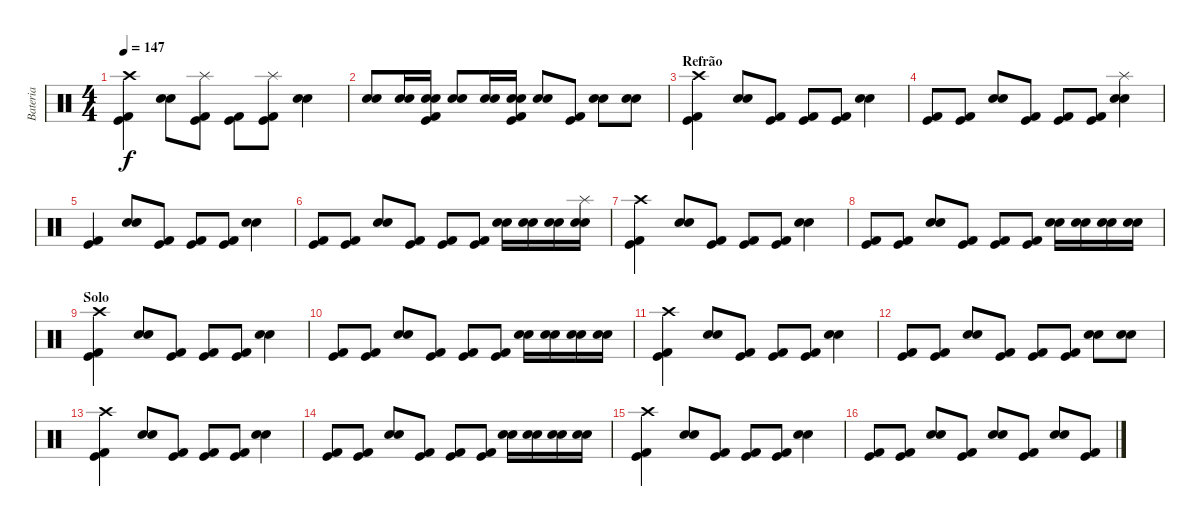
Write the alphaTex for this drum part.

\track ("Bateria" "Bateria") {instrument percussion}
\staff {score}
\articulation defaults
\ts (4 4)
\tempo 147
\clef neutral
\ks c
("Crash high (hit)" "Kick (hit)" "Kick (hit) 2").4{dy f} ("Snare (hit) 2" "Electric Snare (hit)").8 ("Splash (hit)" "Kick (hit)" "Kick (hit) 2").8 ("Kick (hit)" "Kick (hit) 2").8 ("Splash (hit)" "Kick (hit)" "Kick (hit) 2").8 ("Snare (hit) 2" "Electric Snare (hit)").4 |
("Snare (hit) 2" "Electric Snare (hit)").8 ("Snare (hit) 2" "Electric Snare (hit)").16 ("Snare (hit) 2" "Electric Snare (hit)" "Kick (hit)" "Kick (hit) 2").16 ("Snare (hit) 2" "Electric Snare (hit)").8 ("Snare (hit) 2" "Electric Snare (hit)").16 ("Snare (hit) 2" "Electric Snare (hit)" "Kick (hit)" "Kick (hit) 2").16 ("Snare (hit) 2" "Electric Snare (hit)").8 ("Kick (hit)" "Kick (hit) 2").8 ("Snare (hit) 2" "Electric Snare (hit)").8 ("Snare (hit) 2" "Electric Snare (hit)").8 |
\section ("" "Refrão")
("Crash high (hit)" "Kick (hit)" "Kick (hit) 2").4 ("Snare (hit) 2" "Electric Snare (hit)").8 ("Kick (hit)" "Kick (hit) 2").8 ("Kick (hit)" "Kick (hit) 2").8 ("Kick (hit)" "Kick (hit) 2").8 ("Snare (hit) 2" "Electric Snare (hit)").4 |
("Kick (hit)" "Kick (hit) 2").8 ("Kick (hit)" "Kick (hit) 2").8 ("Snare (hit) 2" "Electric Snare (hit)").8 ("Kick (hit)" "Kick (hit) 2").8 ("Kick (hit)" "Kick (hit) 2").8 ("Kick (hit)" "Kick (hit) 2").8 ("Splash (hit)" "Snare (hit) 2" "Electric Snare (hit)").4 |
("Kick (hit)" "Kick (hit) 2").4 ("Snare (hit) 2" "Electric Snare (hit)").8 ("Kick (hit)" "Kick (hit) 2").8 ("Kick (hit)" "Kick (hit) 2").8 ("Kick (hit)" "Kick (hit) 2").8 ("Snare (hit) 2" "Electric Snare (hit)").4 |
("Kick (hit)" "Kick (hit) 2").8 ("Kick (hit)" "Kick (hit) 2").8 ("Snare (hit) 2" "Electric Snare (hit)").8 ("Kick (hit)" "Kick (hit) 2").8 ("Kick (hit)" "Kick (hit) 2").8 ("Kick (hit)" "Kick (hit) 2").8 ("Snare (hit) 2" "Electric Snare (hit)").16 ("Snare (hit) 2" "Electric Snare (hit)").16 ("Snare (hit) 2" "Electric Snare (hit)").16 ("Splash (hit)" "Snare (hit) 2" "Electric Snare (hit)").16 |
("Crash high (hit)" "Kick (hit)" "Kick (hit) 2").4 ("Snare (hit) 2" "Electric Snare (hit)").8 ("Kick (hit)" "Kick (hit) 2").8 ("Kick (hit)" "Kick (hit) 2").8 ("Kick (hit)" "Kick (hit) 2").8 ("Snare (hit) 2" "Electric Snare (hit)").4 |
("Kick (hit)" "Kick (hit) 2").8 ("Kick (hit)" "Kick (hit) 2").8 ("Snare (hit) 2" "Electric Snare (hit)").8 ("Kick (hit)" "Kick (hit) 2").8 ("Kick (hit)" "Kick (hit) 2").8 ("Kick (hit)" "Kick (hit) 2").8 ("Snare (hit) 2" "Electric Snare (hit)").16 ("Snare (hit) 2" "Electric Snare (hit)").16 ("Snare (hit) 2" "Electric Snare (hit)").16 ("Snare (hit) 2" "Electric Snare (hit)").16 |
\section ("" "Solo")
("Crash high (hit)" "Kick (hit)" "Kick (hit) 2").4 ("Snare (hit) 2" "Electric Snare (hit)").8 ("Kick (hit)" "Kick (hit) 2").8 ("Kick (hit)" "Kick (hit) 2").8 ("Kick (hit)" "Kick (hit) 2").8 ("Snare (hit) 2" "Electric Snare (hit)").4 |
("Kick (hit)" "Kick (hit) 2").8 ("Kick (hit)" "Kick (hit) 2").8 ("Snare (hit) 2" "Electric Snare (hit)").8 ("Kick (hit)" "Kick (hit) 2").8 ("Kick (hit)" "Kick (hit) 2").8 ("Kick (hit)" "Kick (hit) 2").8 ("Snare (hit) 2" "Electric Snare (hit)").16 ("Snare (hit) 2" "Electric Snare (hit)").16 ("Snare (hit) 2" "Electric Snare (hit)").16 ("Snare (hit) 2" "Electric Snare (hit)").16 |
("Crash high (hit)" "Kick (hit)" "Kick (hit) 2").4 ("Snare (hit) 2" "Electric Snare (hit)").8 ("Kick (hit)" "Kick (hit) 2").8 ("Kick (hit)" "Kick (hit) 2").8 ("Kick (hit)" "Kick (hit) 2").8 ("Snare (hit) 2" "Electric Snare (hit)").4 |
("Kick (hit)" "Kick (hit) 2").8 ("Kick (hit)" "Kick (hit) 2").8 ("Snare (hit) 2" "Electric Snare (hit)").8 ("Kick (hit)" "Kick (hit) 2").8 ("Kick (hit)" "Kick (hit) 2").8 ("Kick (hit)" "Kick (hit) 2").8 ("Snare (hit) 2" "Electric Snare (hit)").8 ("Snare (hit) 2" "Electric Snare (hit)").8 |
("Crash high (hit)" "Kick (hit)" "Kick (hit) 2").4 ("Snare (hit) 2" "Electric Snare (hit)").8 ("Kick (hit)" "Kick (hit) 2").8 ("Kick (hit)" "Kick (hit) 2").8 ("Kick (hit)" "Kick (hit) 2").8 ("Snare (hit) 2" "Electric Snare (hit)").4 |
("Kick (hit)" "Kick (hit) 2").8 ("Kick (hit)" "Kick (hit) 2").8 ("Snare (hit) 2" "Electric Snare (hit)").8 ("Kick (hit)" "Kick (hit) 2").8 ("Kick (hit)" "Kick (hit) 2").8 ("Kick (hit)" "Kick (hit) 2").8 ("Snare (hit) 2" "Electric Snare (hit)").16 ("Snare (hit) 2" "Electric Snare (hit)").16 ("Snare (hit) 2" "Electric Snare (hit)").16 ("Snare (hit) 2" "Electric Snare (hit)").16 |
("Crash high (hit)" "Kick (hit)" "Kick (hit) 2").4 ("Snare (hit) 2" "Electric Snare (hit)").8 ("Kick (hit)" "Kick (hit) 2").8 ("Kick (hit)" "Kick (hit) 2").8 ("Kick (hit)" "Kick (hit) 2").8 ("Snare (hit) 2" "Electric Snare (hit)").4 |
("Kick (hit)" "Kick (hit) 2").8 ("Kick (hit)" "Kick (hit) 2").8 ("Snare (hit) 2" "Electric Snare (hit)").8 ("Kick (hit)" "Kick (hit) 2").8 ("Snare (hit) 2" "Electric Snare (hit)").8 ("Kick (hit)" "Kick (hit) 2").8 ("Snare (hit) 2" "Electric Snare (hit)").8 ("Kick (hit)" "Kick (hit) 2").8
